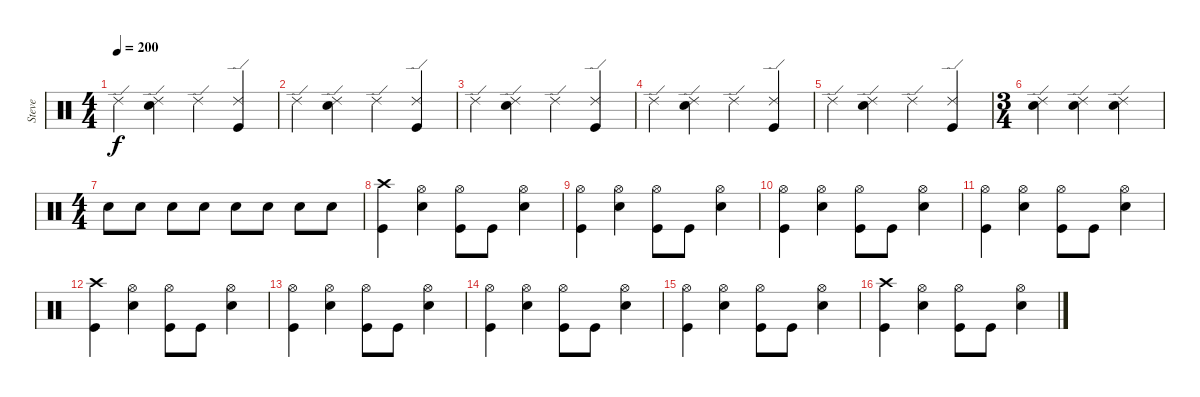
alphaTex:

\track ("Steve" "Steve") {instrument percussion}
\staff {score}
\articulation defaults
\ts (4 4)
\tempo 200
\clef neutral
\ks c "Ride (edge) 2".4{dy f}
("Ride (edge) 2" "Snare (hit) 2").4 "Ride (edge) 2".4 ("Ride (edge) 2" "Kick (hit)").4 |
"Ride (edge) 2".4 ("Ride (edge) 2" "Snare (hit) 2").4 "Ride (edge) 2".4 ("Ride (edge) 2" "Kick (hit)").4 |
"Ride (edge) 2".4 ("Ride (edge) 2" "Snare (hit) 2").4 "Ride (edge) 2".4 ("Ride (edge) 2" "Kick (hit)").4 |
"Ride (edge) 2".4 ("Ride (edge) 2" "Snare (hit) 2").4 "Ride (edge) 2".4 ("Ride (edge) 2" "Kick (hit)").4 |
"Ride (edge) 2".4 ("Ride (edge) 2" "Snare (hit) 2").4 "Ride (edge) 2".4 ("Ride (edge) 2" "Kick (hit)").4 |
\ts (3 4)
("Ride (edge) 2" "Snare (hit) 2").4 ("Ride (edge) 2" "Snare (hit) 2").4 ("Ride (edge) 2" "Snare (hit) 2").4 |
\ts (4 4)
"Snare (hit) 2".8 "Snare (hit) 2".8 "Snare (hit) 2".8 "Snare (hit) 2".8 "Snare (hit) 2".8 "Snare (hit) 2".8 "Snare (hit) 2".8 "Snare (hit) 2".8 |
("Crash high (hit)" "Kick (hit)").4 ("Hi-Hat (open)" "Snare (hit) 2").4 ("Hi-Hat (open)" "Kick (hit)").8 "Kick (hit)".8 ("Hi-Hat (open)" "Snare (hit) 2").4 |
("Hi-Hat (open)" "Kick (hit)").4 ("Hi-Hat (open)" "Snare (hit) 2").4 ("Hi-Hat (open)" "Kick (hit)").8 "Kick (hit)".8 ("Hi-Hat (open)" "Snare (hit) 2").4 |
("Hi-Hat (open)" "Kick (hit)").4 ("Hi-Hat (open)" "Snare (hit) 2").4 ("Hi-Hat (open)" "Kick (hit)").8 "Kick (hit)".8 ("Hi-Hat (open)" "Snare (hit) 2").4 |
("Hi-Hat (open)" "Kick (hit)").4 ("Hi-Hat (open)" "Snare (hit) 2").4 ("Hi-Hat (open)" "Kick (hit)").8 "Kick (hit)".8 ("Hi-Hat (open)" "Snare (hit) 2").4 |
("Crash high (hit)" "Kick (hit)").4 ("Hi-Hat (open)" "Snare (hit) 2").4 ("Hi-Hat (open)" "Kick (hit)").8 "Kick (hit)".8 ("Hi-Hat (open)" "Snare (hit) 2").4 |
("Hi-Hat (open)" "Kick (hit)").4 ("Hi-Hat (open)" "Snare (hit) 2").4 ("Hi-Hat (open)" "Kick (hit)").8 "Kick (hit)".8 ("Hi-Hat (open)" "Snare (hit) 2").4 |
("Hi-Hat (open)" "Kick (hit)").4 ("Hi-Hat (open)" "Snare (hit) 2").4 ("Hi-Hat (open)" "Kick (hit)").8 "Kick (hit)".8 ("Hi-Hat (open)" "Snare (hit) 2").4 |
("Hi-Hat (open)" "Kick (hit)").4 ("Hi-Hat (open)" "Snare (hit) 2").4 ("Hi-Hat (open)" "Kick (hit)").8 "Kick (hit)".8 ("Hi-Hat (open)" "Snare (hit) 2").4 |
("Crash high (hit)" "Kick (hit)").4 ("Hi-Hat (open)" "Snare (hit) 2").4 ("Hi-Hat (open)" "Kick (hit)").8 "Kick (hit)".8 ("Hi-Hat (open)" "Snare (hit) 2").4
